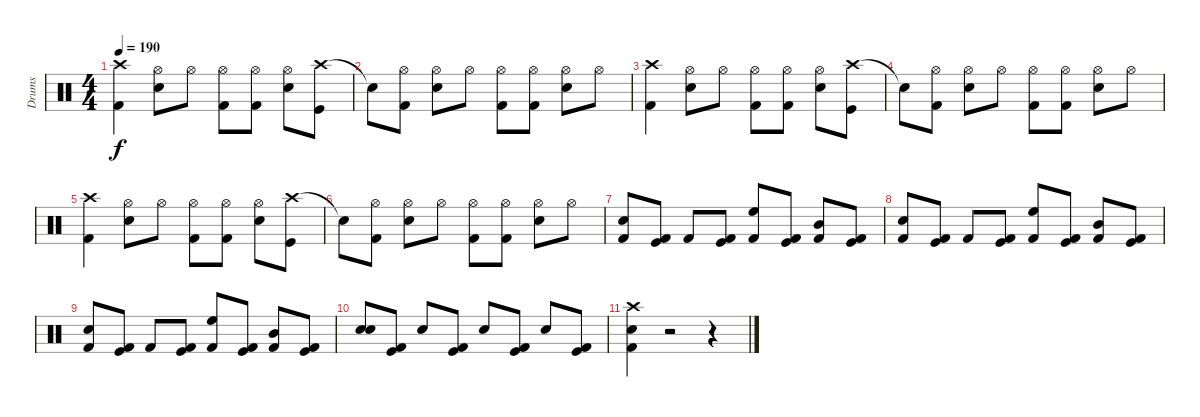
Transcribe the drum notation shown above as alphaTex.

\track ("Drums" "Drums") {instrument percussion}
\staff {score}
\articulation defaults
\ts (4 4)
\tempo 190
\clef neutral
\ks c
("Crash high (hit)" "Kick (hit) 2").4{dy f} ("Hi-Hat (open)" "Electric Snare (hit)").8 "Hi-Hat (open)".8 ("Hi-Hat (open)" "Kick (hit) 2").8 ("Hi-Hat (open)" "Kick (hit) 2").8 ("Hi-Hat (open)" "Electric Snare (hit)").8 ("Crash high (hit)" "Kick (hit)").8 |
"Snare (hit)"{t}.8 ("Hi-Hat (open)" "Kick (hit) 2").8 ("Hi-Hat (open)" "Electric Snare (hit)").8 "Hi-Hat (open)".8 ("Hi-Hat (open)" "Kick (hit) 2").8 ("Hi-Hat (open)" "Kick (hit) 2").8 ("Hi-Hat (open)" "Electric Snare (hit)").8 "Hi-Hat (open)".8 |
("Crash high (hit)" "Kick (hit) 2").4 ("Hi-Hat (open)" "Electric Snare (hit)").8 "Hi-Hat (open)".8 ("Hi-Hat (open)" "Kick (hit) 2").8 ("Hi-Hat (open)" "Kick (hit) 2").8 ("Hi-Hat (open)" "Electric Snare (hit)").8 ("Crash high (hit)" "Kick (hit)").8 |
"Snare (hit)"{t}.8 ("Hi-Hat (open)" "Kick (hit) 2").8 ("Hi-Hat (open)" "Electric Snare (hit)").8 "Hi-Hat (open)".8 ("Hi-Hat (open)" "Kick (hit) 2").8 ("Hi-Hat (open)" "Kick (hit) 2").8 ("Hi-Hat (open)" "Electric Snare (hit)").8 "Hi-Hat (open)".8 |
("Crash high (hit)" "Kick (hit) 2").4 ("Hi-Hat (open)" "Electric Snare (hit)").8 "Hi-Hat (open)".8 ("Hi-Hat (open)" "Kick (hit) 2").8 ("Hi-Hat (open)" "Kick (hit) 2").8 ("Hi-Hat (open)" "Electric Snare (hit)").8 ("Crash high (hit)" "Kick (hit)").8 |
"Snare (hit)"{t}.8 ("Hi-Hat (open)" "Kick (hit) 2").8 ("Hi-Hat (open)" "Electric Snare (hit)").8 "Hi-Hat (open)".8 ("Hi-Hat (open)" "Kick (hit) 2").8 ("Hi-Hat (open)" "Kick (hit) 2").8 ("Hi-Hat (open)" "Electric Snare (hit)").8 "Hi-Hat (open)".8 |
("Electric Snare (hit)" "Kick (hit) 2").8 ("Kick (hit)" "Kick (hit) 2").8 "Kick (hit) 2".8 ("Kick (hit)" "Kick (hit) 2").8 ("High Floor Tom (hit)" "Kick (hit) 2").8 ("Kick (hit)" "Kick (hit) 2").8 ("Mid Tom (hit)" "Kick (hit) 2").8 ("Kick (hit)" "Kick (hit) 2").8 |
("Electric Snare (hit)" "Kick (hit) 2").8 ("Kick (hit)" "Kick (hit) 2").8 "Kick (hit) 2".8 ("Kick (hit)" "Kick (hit) 2").8 ("High Floor Tom (hit)" "Kick (hit) 2").8 ("Kick (hit)" "Kick (hit) 2").8 ("Mid Tom (hit)" "Kick (hit) 2").8 ("Kick (hit)" "Kick (hit) 2").8 |
("Electric Snare (hit)" "Kick (hit) 2").8 ("Kick (hit)" "Kick (hit) 2").8 "Kick (hit) 2".8 ("Kick (hit)" "Kick (hit) 2").8 ("High Floor Tom (hit)" "Kick (hit) 2").8 ("Kick (hit)" "Kick (hit) 2").8 ("Mid Tom (hit)" "Kick (hit) 2").8 ("Kick (hit)" "Kick (hit) 2").8 |
("Electric Snare (hit)" "Electric Snare (hit)").8 ("Kick (hit)" "Kick (hit) 2").8 "Electric Snare (hit)".8 ("Kick (hit)" "Kick (hit) 2").8 "Electric Snare (hit)".8 ("Kick (hit)" "Kick (hit) 2").8 "Electric Snare (hit)".8 ("Kick (hit)" "Kick (hit) 2").8 |
("Crash high (hit)" "Electric Snare (hit)" "Kick (hit) 2").4 r.2 r.4
